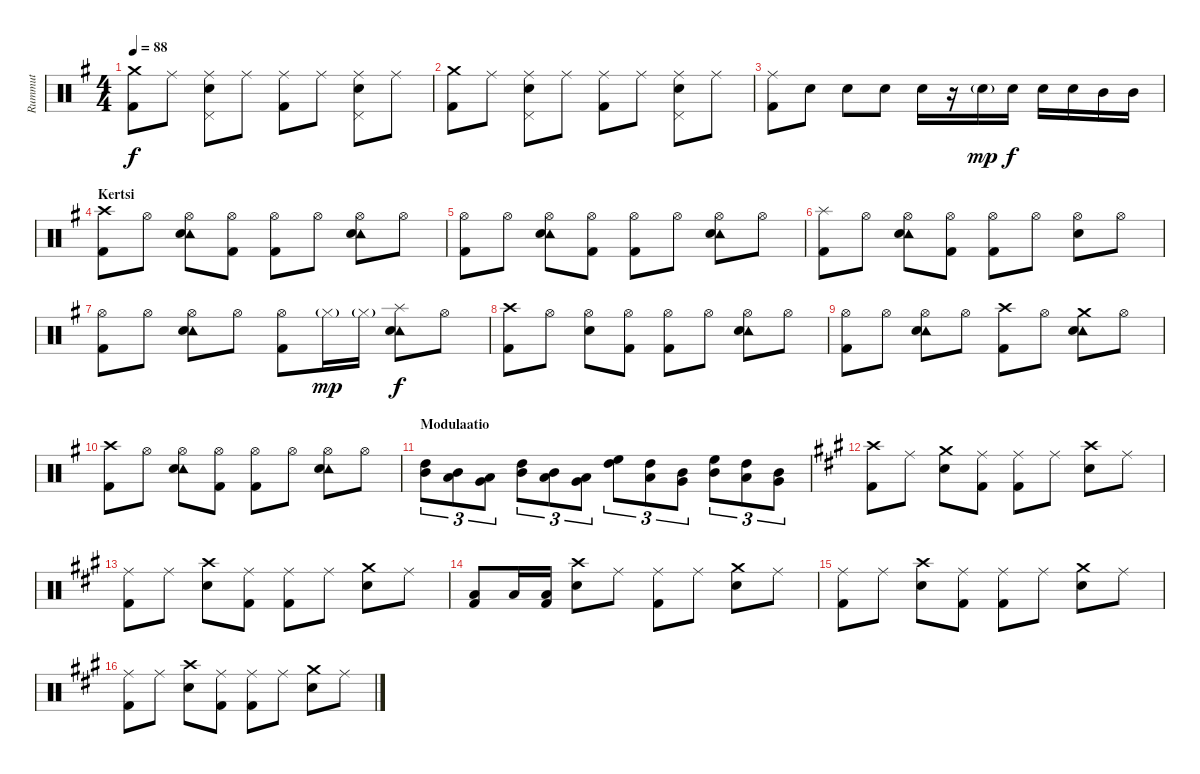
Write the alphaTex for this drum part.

\track ("Rummut" "Rummut") {instrument percussion}
\staff {score}
\articulation defaults
\ts (4 4)
\tempo 88
\clef neutral
\ks eminor
("Crash medium (hit)" "Kick (hit) 2").8{dy f} "Ride (middle)".8 ("Ride (middle)" "Pedal Hi-Hat (hit)" "Snare (hit) 2").8 "Ride (middle)".8 ("Ride (middle)" "Kick (hit) 2").8 "Ride (middle)".8 ("Ride (middle)" "Pedal Hi-Hat (hit)" "Snare (hit) 2").8 "Ride (middle)".8 |
("Crash medium (hit)" "Kick (hit) 2").8 "Ride (middle)".8 ("Ride (middle)" "Pedal Hi-Hat (hit)" "Snare (hit) 2").8 "Ride (middle)".8 ("Ride (middle)" "Kick (hit) 2").8 "Ride (middle)".8 ("Ride (middle)" "Pedal Hi-Hat (hit)" "Snare (hit) 2").8 "Ride (middle)".8 |
("Ride (middle)" "Kick (hit) 2").8 "Snare (hit) 2".8 "Snare (hit) 2".8 "Snare (hit) 2".8 "Snare (hit) 2".16 r.16 "Snare (hit) 2"{g}.16{dy mp} "Snare (hit) 2".16{dy f} "Snare (hit) 2".16 "Snare (hit) 2".16 "Mid Tom (hit)".16 "Mid Tom (hit)".16 |
\section ("" "Kertsi")
("Crash high (hit)" "Kick (hit) 2").8 "Hi-Hat (open)".8 ("Hi-Hat (open)" "Tambourine (hit)" "Snare (hit) 2").8 ("Hi-Hat (open)" "Kick (hit) 2").8 ("Hi-Hat (open)" "Kick (hit) 2").8 "Hi-Hat (open)".8 ("Hi-Hat (open)" "Tambourine (hit)" "Snare (hit) 2").8 "Hi-Hat (open)".8 |
("Hi-Hat (open)" "Kick (hit) 2").8 "Hi-Hat (open)".8 ("Hi-Hat (open)" "Tambourine (hit)" "Snare (hit) 2").8 ("Hi-Hat (open)" "Kick (hit) 2").8 ("Hi-Hat (open)" "Kick (hit) 2").8 "Hi-Hat (open)".8 ("Hi-Hat (open)" "Tambourine (hit)" "Snare (hit) 2").8 "Hi-Hat (open)".8 |
("Splash (hit)" "Kick (hit) 2").8 "Hi-Hat (open)".8 ("Hi-Hat (open)" "Tambourine (hit)" "Snare (hit) 2").8 ("Hi-Hat (open)" "Kick (hit) 2").8 ("Hi-Hat (open)" "Kick (hit) 2").8 "Hi-Hat (open)".8 ("Hi-Hat (open)" "Snare (hit) 2").8 "Hi-Hat (open)".8 |
("Hi-Hat (open)" "Kick (hit) 2").8 "Hi-Hat (open)".8 ("Hi-Hat (open)" "Tambourine (hit)" "Snare (hit) 2").8 "Hi-Hat (open)".8 ("Hi-Hat (open)" "Kick (hit) 2").8 "Hi-Hat (closed)"{g}.16{dy mp} "Hi-Hat (closed)"{g}.16 ("Splash (hit)" "Tambourine (hit)" "Snare (hit) 2").8{dy f} "Hi-Hat (open)".8 |
("Crash high (hit)" "Kick (hit) 2").8 "Hi-Hat (open)".8 ("Hi-Hat (open)" "Snare (hit) 2").8 ("Hi-Hat (open)" "Kick (hit) 2").8 ("Hi-Hat (open)" "Kick (hit) 2").8 "Hi-Hat (open)".8 ("Hi-Hat (open)" "Tambourine (hit)" "Snare (hit) 2").8 "Hi-Hat (open)".8 |
("Hi-Hat (open)" "Kick (hit) 2").8 "Hi-Hat (open)".8 ("Hi-Hat (open)" "Tambourine (hit)" "Snare (hit) 2").8 "Hi-Hat (open)".8 ("Crash high (hit)" "Kick (hit) 2").8 "Hi-Hat (open)".8 ("Crash medium (hit)" "Tambourine (hit)" "Snare (hit) 2").8 "Hi-Hat (open)".8 |
("Crash high (hit)" "Kick (hit) 2").8 "Hi-Hat (open)".8 ("Hi-Hat (open)" "Tambourine (hit)" "Snare (hit) 2").8 ("Hi-Hat (open)" "Kick (hit) 2").8 ("Hi-Hat (open)" "Kick (hit) 2").8 "Hi-Hat (open)".8 ("Hi-Hat (open)" "Tambourine (hit)" "Snare (hit) 2").8 "Hi-Hat (open)".8 |
\section ("" "Modulaatio")
("Mid Tom (hit)" "High Tom (hit)").8{tu (3 2)} ("Low Tom (hit)" "Mid Tom (hit)").8{tu (3 2)} ("Very Low Tom (hit)" "Low Tom (hit)").8{tu (3 2)} ("Mid Tom (hit)" "High Tom (hit)").8{tu (3 2)} ("Low Tom (hit)" "Mid Tom (hit)").8{tu (3 2)} ("Very Low Tom (hit)" "Low Tom (hit)").8{tu (3 2)} ("High Tom (hit)" "High Floor Tom (hit)").8{tu (3 2)} ("Low Tom (hit)" "High Tom (hit)").8{tu (3 2)} ("Very Low Tom (hit)" "Mid Tom (hit)").8{tu (3 2)} ("Mid Tom (hit)" "High Floor Tom (hit)").8{tu (3 2)} ("Low Tom (hit)" "High Tom (hit)").8{tu (3 2)} ("Very Low Tom (hit)" "Mid Tom (hit)").8{tu (3 2)} |
\ks f#minor
("Crash high (hit)" "Kick (hit) 2").8 "Ride (middle)".8 ("Crash medium (hit)" "Snare (hit) 2").8 ("Ride (middle)" "Kick (hit) 2").8 ("Ride (middle)" "Kick (hit) 2").8 "Ride (middle)".8 ("Crash high (hit)" "Snare (hit) 2").8 "Ride (middle)".8 |
("Ride (middle)" "Kick (hit) 2").8 "Ride (middle)".8 ("Crash high (hit)" "Snare (hit) 2").8 ("Ride (middle)" "Kick (hit) 2").8 ("Ride (middle)" "Kick (hit) 2").8 "Ride (middle)".8 ("Crash medium (hit)" "Snare (hit) 2").8 "Ride (middle)".8 |
("Low Floor Tom (hit)" "Kick (hit) 2").8 "Low Floor Tom (hit)".16 ("Low Floor Tom (hit)" "Kick (hit) 2").16 ("Crash high (hit)" "Snare (hit) 2").8 "Ride (middle)".8 ("Ride (middle)" "Kick (hit) 2").8 "Ride (middle)".8 ("Crash medium (hit)" "Snare (hit) 2").8 "Ride (middle)".8 |
("Ride (middle)" "Kick (hit) 2").8 "Ride (middle)".8 ("Crash high (hit)" "Snare (hit) 2").8 ("Ride (middle)" "Kick (hit) 2").8 ("Ride (middle)" "Kick (hit) 2").8 "Ride (middle)".8 ("Crash medium (hit)" "Snare (hit) 2").8 "Ride (middle)".8 |
("Ride (middle)" "Kick (hit) 2").8 "Ride (middle)".8 ("Crash high (hit)" "Snare (hit) 2").8 ("Ride (middle)" "Kick (hit) 2").8 ("Ride (middle)" "Kick (hit) 2").8 "Ride (middle)".8 ("Crash medium (hit)" "Snare (hit) 2").8 "Ride (middle)".8
